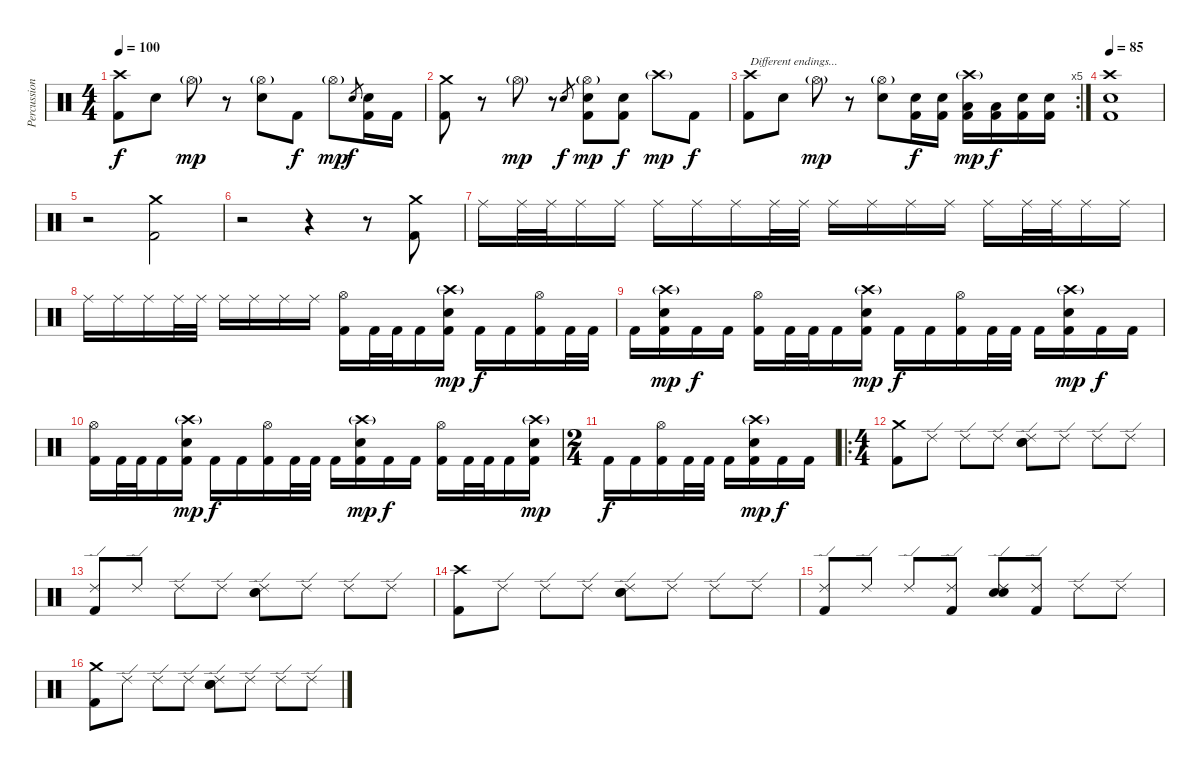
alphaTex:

\track ("Percussion" "Percussion") {instrument percussion}
\staff {score}
\articulation defaults
\ts (4 4)
\tempo 100
\clef neutral
\ks c
("Crash high (hit)" "Kick (hit) 2").8{dy f} "Electric Snare (hit)".8 "Hi-Hat (open)"{g}.8{dy mp} r.8 ("Hi-Hat (open)"{g} "Electric Snare (hit)").8 "Kick (hit) 2".8{dy f} "Hi-Hat (open)"{g}.8{dy mp} "Electric Snare (hit)".8{gr dy f} ("Electric Snare (hit)" "Kick (hit) 2").16 "Kick (hit) 2".16 |
("Crash medium (hit)" "Kick (hit) 2").8 r.8 "Hi-Hat (open)"{g}.8{dy mp} r.8 "Electric Snare (hit)".8{gr dy f} ("Hi-Hat (open)"{g} "Electric Snare (hit)" "Kick (hit) 2").8{dy mp} ("Electric Snare (hit)" "Kick (hit) 2").8{dy f} "Crash high (hit)"{g}.8{dy mp} "Kick (hit) 2".8{dy f} |
\rc 5
("Crash high (hit)" "Kick (hit) 2").8{txt "Different endings..."} "Electric Snare (hit)".8 "Hi-Hat (open)"{g}.8{dy mp} r.8 ("Hi-Hat (open)"{g} "Electric Snare (hit)").8 ("Electric Snare (hit)" "Kick (hit) 2").16{dy f} ("Electric Snare (hit)" "Kick (hit) 2").16 ("Crash high (hit)"{g} "Low Tom (hit)" "Kick (hit) 2").16{dy mp} ("Low Tom (hit)" "Kick (hit) 2").16{dy f} ("Electric Snare (hit)" "Kick (hit) 2").16 ("Electric Snare (hit)" "Kick (hit) 2").16 |
\tempo 85
("Crash high (hit)" "Electric Snare (hit)" "Kick (hit) 2").1 |
r.2 ("Crash medium (hit)" "Kick (hit) 2").2 |
r.2 r.4 r.8 ("Crash medium (hit)" "Kick (hit) 2").8 |
"Ride (middle)".16 "Ride (middle)".32 "Ride (middle)".32 "Ride (middle)".16 "Ride (middle)".16 "Ride (middle)".16 "Ride (middle)".16 "Ride (middle)".16 "Ride (middle)".32 "Ride (middle)".32 "Ride (middle)".16 "Ride (middle)".16 "Ride (middle)".16 "Ride (middle)".16 "Ride (middle)".16 "Ride (middle)".32 "Ride (middle)".32 "Ride (middle)".16 "Ride (middle)".16 |
"Ride (middle)".16 "Ride (middle)".16 "Ride (middle)".16 "Ride (middle)".32 "Ride (middle)".32 "Ride (middle)".16 "Ride (middle)".16 "Ride (middle)".16 "Ride (middle)".16 ("Hi-Hat (open)" "Kick (hit) 2").16 "Kick (hit) 2".32 "Kick (hit) 2".32 "Kick (hit) 2".16 ("Crash high (hit)"{g} "Electric Snare (hit)" "Kick (hit) 2").16{dy mp} "Kick (hit) 2".16{dy f} "Kick (hit) 2".16 ("Hi-Hat (open)" "Kick (hit) 2").16 "Kick (hit) 2".32 "Kick (hit) 2".32 |
"Kick (hit) 2".16 ("Crash high (hit)"{g} "Electric Snare (hit)" "Kick (hit) 2").16{dy mp} "Kick (hit) 2".16{dy f} "Kick (hit) 2".16 ("Hi-Hat (open)" "Kick (hit) 2").16 "Kick (hit) 2".32 "Kick (hit) 2".32 "Kick (hit) 2".16 ("Crash high (hit)"{g} "Electric Snare (hit)" "Kick (hit) 2").16{dy mp} "Kick (hit) 2".16{dy f} "Kick (hit) 2".16 ("Hi-Hat (open)" "Kick (hit) 2").16 "Kick (hit) 2".32 "Kick (hit) 2".32 "Kick (hit) 2".16 ("Crash high (hit)"{g} "Electric Snare (hit)" "Kick (hit) 2").16{dy mp} "Kick (hit) 2".16{dy f} "Kick (hit) 2".16 |
("Hi-Hat (open)" "Kick (hit) 2").16 "Kick (hit) 2".32 "Kick (hit) 2".32 "Kick (hit) 2".16 ("Crash high (hit)"{g} "Electric Snare (hit)" "Kick (hit) 2").16{dy mp} "Kick (hit) 2".16{dy f} "Kick (hit) 2".16 ("Hi-Hat (open)" "Kick (hit) 2").16 "Kick (hit) 2".32 "Kick (hit) 2".32 "Kick (hit) 2".16 ("Crash high (hit)"{g} "Electric Snare (hit)" "Kick (hit) 2").16{dy mp} "Kick (hit) 2".16{dy f} "Kick (hit) 2".16 ("Hi-Hat (open)" "Kick (hit) 2").16 "Kick (hit) 2".32 "Kick (hit) 2".32 "Kick (hit) 2".16 ("Crash high (hit)"{g} "Electric Snare (hit)" "Kick (hit) 2").16{dy mp} |
\ts (2 4)
"Kick (hit) 2".16{dy f} "Kick (hit) 2".16 ("Hi-Hat (open)" "Kick (hit) 2").16 "Kick (hit) 2".32 "Kick (hit) 2".32 "Kick (hit) 2".16 ("Crash high (hit)"{g} "Electric Snare (hit)" "Kick (hit) 2").16{dy mp} "Kick (hit) 2".16{dy f} "Kick (hit) 2".16 |
\ro
\ts (4 4)
("Crash medium (hit)" "Kick (hit) 2").8 "Ride (edge) 2".8 "Ride (edge) 2".8 "Ride (edge) 2".8 ("Ride (edge) 2" "Electric Snare (hit)" "Electric Snare (hit)").8 "Ride (edge) 2".8 "Ride (edge) 2".8 "Ride (edge) 2".8 |
("Ride (edge) 2" "Kick (hit) 2").8 "Ride (edge) 2".8 "Ride (edge) 2".8 "Ride (edge) 2".8 ("Ride (edge) 2" "Electric Snare (hit)" "Electric Snare (hit)").8 "Ride (edge) 2".8 "Ride (edge) 2".8 "Ride (edge) 2".8 |
("Crash high (hit)" "Kick (hit) 2").8 "Ride (edge) 2".8 "Ride (edge) 2".8 "Ride (edge) 2".8 ("Ride (edge) 2" "Electric Snare (hit)" "Electric Snare (hit)").8 "Ride (edge) 2".8 "Ride (edge) 2".8 "Ride (edge) 2".8 |
("Ride (edge) 2" "Kick (hit) 2").8 "Ride (edge) 2".8 "Ride (edge) 2".8 ("Ride (edge) 2" "Kick (hit) 2").8 ("Ride (edge) 2" "Electric Snare (hit)" "Electric Snare (hit)").8 ("Ride (edge) 2" "Kick (hit) 2").8 "Ride (edge) 2".8 "Ride (edge) 2".8 |
("Crash medium (hit)" "Kick (hit) 2").8 "Ride (edge) 2".8 "Ride (edge) 2".8 "Ride (edge) 2".8 ("Ride (edge) 2" "Electric Snare (hit)" "Electric Snare (hit)").8 "Ride (edge) 2".8 "Ride (edge) 2".8 "Ride (edge) 2".8
